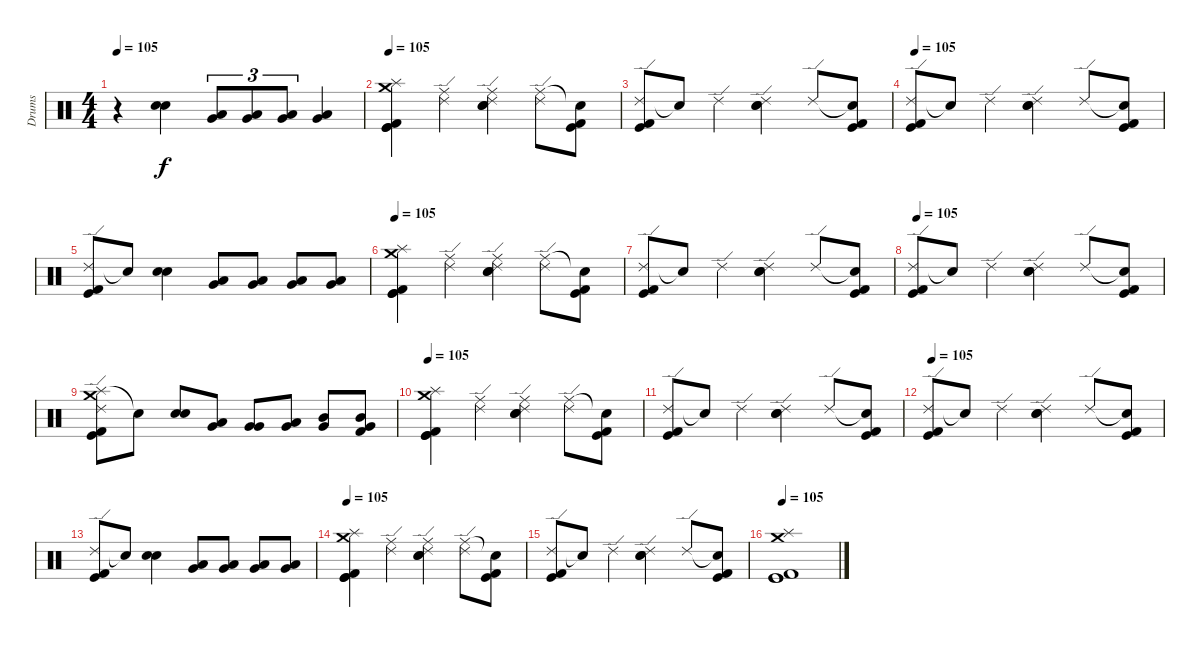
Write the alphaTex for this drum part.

\track ("Drums" "Drums") {instrument percussion}
\staff {score}
\articulation defaults
\ts (4 4)
\tempo 105
\clef neutral
\ks c
r.4{dy f} ("Electric Snare (hit)" "Snare (hit) 2").4{bu 240} ("Very Low Tom (hit)" "Low Floor Tom (hit)").8{tu (3 2)} ("Very Low Tom (hit)" "Low Floor Tom (hit)").8{tu (3 2)} ("Very Low Tom (hit)" "Low Floor Tom (hit)").8{tu (3 2)} ("Very Low Tom (hit)" "Low Floor Tom (hit)").4 |
\tempo 105
("Crash medium (hit)" "Splash (hit)" "Kick (hit)" "Kick (hit) 2" "Kick (hit)").4 ("Ride (middle)" "Ride (edge) 2").4 ("Ride (middle)" "Ride (edge) 2" "Snare (hit) 2" "Snare (hit) 2").4 ("Ride (middle)" "Ride (edge) 2").8 ("Snare (hit)"{t} "Kick (hit) 2" "Kick (hit)").8 |
("Ride (edge) 2" "Kick (hit) 2" "Kick (hit)").8 "Snare (hit)"{t}.8 "Ride (edge) 2".4 ("Ride (edge) 2" "Snare (hit) 2" "Snare (hit) 2").4 "Ride (edge) 2".8 ("Snare (hit)"{t} "Kick (hit) 2" "Kick (hit)").8 |
\tempo 105
("Ride (edge) 2" "Kick (hit) 2" "Kick (hit)").8 "Snare (hit)"{t}.8 "Ride (edge) 2".4 ("Ride (edge) 2" "Snare (hit) 2" "Snare (hit) 2").4 "Ride (edge) 2".8 ("Snare (hit)"{t} "Kick (hit) 2" "Kick (hit)").8 |
("Ride (edge) 2" "Kick (hit) 2" "Kick (hit)").8 "Snare (hit)"{t}.8 ("Electric Snare (hit)" "Snare (hit) 2").4{bu 240} ("Low Tom (hit)" "Very Low Tom (hit)").8 ("Low Tom (hit)" "Very Low Tom (hit)").8 ("Low Tom (hit)" "Very Low Tom (hit)").8 ("Low Tom (hit)" "Very Low Tom (hit)").8 |
\tempo 105
("Crash medium (hit)" "Splash (hit)" "Kick (hit)" "Kick (hit) 2" "Kick (hit)").4 ("Ride (middle)" "Ride (edge) 2").4 ("Ride (middle)" "Ride (edge) 2" "Snare (hit) 2" "Snare (hit) 2").4 ("Ride (middle)" "Ride (edge) 2").8 ("Snare (hit)"{t} "Kick (hit) 2" "Kick (hit)").8 |
("Ride (edge) 2" "Kick (hit) 2" "Kick (hit)").8 "Snare (hit)"{t}.8 "Ride (edge) 2".4 ("Ride (edge) 2" "Snare (hit) 2" "Snare (hit) 2").4 "Ride (edge) 2".8 ("Snare (hit)"{t} "Kick (hit) 2" "Kick (hit)").8 |
\tempo 105
("Ride (edge) 2" "Kick (hit) 2" "Kick (hit)").8 "Snare (hit)"{t}.8 "Ride (edge) 2".4 ("Ride (edge) 2" "Snare (hit) 2" "Snare (hit) 2").4 "Ride (edge) 2".8 ("Snare (hit)"{t} "Kick (hit) 2" "Kick (hit)").8 |
("Splash (hit)" "Ride (edge) 2" "Crash medium (hit)" "Kick (hit) 2" "Kick (hit)").8 "Snare (hit)"{t}.8 ("Electric Snare (hit)" "Snare (hit) 2").8{bu 240} ("Very Low Tom (hit)" "Low Floor Tom (hit)").8 ("Very Low Tom (hit)" "Very Low Tom (hit)").8 ("Very Low Tom (hit)" "Low Tom (hit)").8 ("Very Low Tom (hit)" "Mid Tom (hit)").8 ("Very Low Tom (hit)" "Mid Tom (hit)" "Kick (hit) 2").8 |
\tempo 105
("Crash medium (hit)" "Splash (hit)" "Kick (hit)" "Kick (hit) 2" "Kick (hit)").4 ("Ride (middle)" "Ride (edge) 2").4 ("Ride (middle)" "Ride (edge) 2" "Snare (hit) 2" "Snare (hit) 2").4 ("Ride (middle)" "Ride (edge) 2").8 ("Snare (hit)"{t} "Kick (hit) 2" "Kick (hit)").8 |
("Ride (edge) 2" "Kick (hit) 2" "Kick (hit)").8 "Snare (hit)"{t}.8 "Ride (edge) 2".4 ("Ride (edge) 2" "Snare (hit) 2" "Snare (hit) 2").4 "Ride (edge) 2".8 ("Snare (hit)"{t} "Kick (hit) 2" "Kick (hit)").8 |
\tempo 105
("Ride (edge) 2" "Kick (hit) 2" "Kick (hit)").8 "Snare (hit)"{t}.8 "Ride (edge) 2".4 ("Ride (edge) 2" "Snare (hit) 2" "Snare (hit) 2").4 "Ride (edge) 2".8 ("Snare (hit)"{t} "Kick (hit) 2" "Kick (hit)").8 |
("Ride (edge) 2" "Kick (hit) 2" "Kick (hit)").8 "Snare (hit)"{t}.8 ("Electric Snare (hit)" "Snare (hit) 2").4{bu 240} ("Low Tom (hit)" "Very Low Tom (hit)").8 ("Low Tom (hit)" "Very Low Tom (hit)").8 ("Low Tom (hit)" "Very Low Tom (hit)").8 ("Low Tom (hit)" "Very Low Tom (hit)").8 |
\tempo 105
("Crash medium (hit)" "Splash (hit)" "Kick (hit)" "Kick (hit) 2" "Kick (hit)").4 ("Ride (middle)" "Ride (edge) 2").4 ("Ride (middle)" "Ride (edge) 2" "Snare (hit) 2" "Snare (hit) 2").4 ("Ride (middle)" "Ride (edge) 2").8 ("Snare (hit)"{t} "Kick (hit) 2" "Kick (hit)").8 |
("Ride (edge) 2" "Kick (hit) 2" "Kick (hit)").8 "Snare (hit)"{t}.8 "Ride (edge) 2".4 ("Ride (edge) 2" "Snare (hit) 2" "Snare (hit) 2").4 "Ride (edge) 2".8 ("Snare (hit)"{t} "Kick (hit) 2" "Kick (hit)").8 |
\tempo 105
("Crash medium (hit)" "Splash (hit)" "Kick (hit)" "Kick (hit) 2" "Kick (hit)").1
